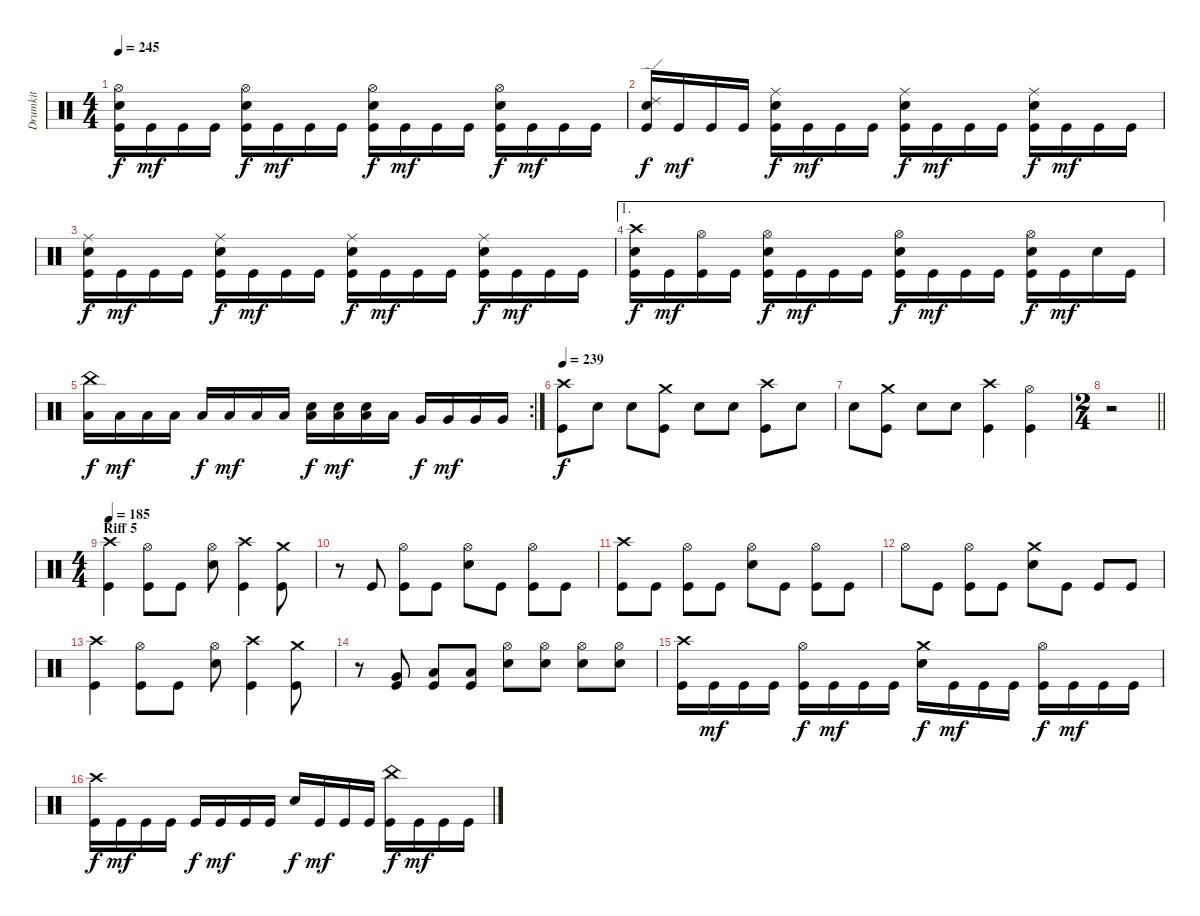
\track ("Drumkit" "Drumkit") {instrument percussion}
\staff {score}
\articulation defaults
\ts (4 4)
\tempo 245
\clef neutral
\ks c
("Kick (hit)" "Snare (hit) 2" "Hi-Hat (open)").16{dy f} "Kick (hit)".16{dy mf} "Kick (hit)".16 "Kick (hit)".16 ("Kick (hit)" "Snare (hit) 2" "Hi-Hat (open)").16{dy f} "Kick (hit)".16{dy mf} "Kick (hit)".16 "Kick (hit)".16 ("Kick (hit)" "Snare (hit) 2" "Hi-Hat (open)").16{dy f} "Kick (hit)".16{dy mf} "Kick (hit)".16 "Kick (hit)".16 ("Kick (hit)" "Snare (hit) 2" "Hi-Hat (open)").16{dy f} "Kick (hit)".16{dy mf} "Kick (hit)".16 "Kick (hit)".16 |
("Kick (hit)" "Snare (hit) 2" "Ride (edge) 2").16{dy f} "Kick (hit)".16{dy mf} "Kick (hit)".16 "Kick (hit)".16 ("Kick (hit)" "Snare (hit) 2" "Ride (middle)").16{dy f} "Kick (hit)".16{dy mf} "Kick (hit)".16 "Kick (hit)".16 ("Kick (hit)" "Snare (hit) 2" "Ride (middle)").16{dy f} "Kick (hit)".16{dy mf} "Kick (hit)".16 "Kick (hit)".16 ("Kick (hit)" "Snare (hit) 2" "Ride (middle)").16{dy f} "Kick (hit)".16{dy mf} "Kick (hit)".16 "Kick (hit)".16 |
("Kick (hit)" "Snare (hit) 2" "Ride (middle)").16{dy f} "Kick (hit)".16{dy mf} "Kick (hit)".16 "Kick (hit)".16 ("Kick (hit)" "Snare (hit) 2" "Ride (middle)").16{dy f} "Kick (hit)".16{dy mf} "Kick (hit)".16 "Kick (hit)".16 ("Kick (hit)" "Snare (hit) 2" "Ride (middle)").16{dy f} "Kick (hit)".16{dy mf} "Kick (hit)".16 "Kick (hit)".16 ("Kick (hit)" "Snare (hit) 2" "Ride (middle)").16{dy f} "Kick (hit)".16{dy mf} "Kick (hit)".16 "Kick (hit)".16 |
\ae 1
("Kick (hit)" "Snare (hit) 2" "Crash high (hit)").16{dy f} "Kick (hit)".16{dy mf} ("Kick (hit)" "Hi-Hat (open)").16 "Kick (hit)".16 ("Kick (hit)" "Snare (hit) 2" "Hi-Hat (open)").16{dy f} "Kick (hit)".16{dy mf} "Kick (hit)".16 "Kick (hit)".16 ("Kick (hit)" "Snare (hit) 2" "Hi-Hat (open)").16{dy f} "Kick (hit)".16{dy mf} "Kick (hit)".16 "Kick (hit)".16 ("Kick (hit)" "Snare (hit) 2" "Hi-Hat (open)").16{dy f} "Kick (hit)".16{dy mf} "Snare (hit) 2".16 "Kick (hit)".16 |
\rc 2
("Low Tom (hit)" "China (hit)").16{dy f} "Low Tom (hit)".16{dy mf} "Low Tom (hit)".16 "Low Tom (hit)".16 "Low Tom (hit)".16{dy f} "Low Tom (hit)".16{dy mf} "Low Tom (hit)".16 "Low Tom (hit)".16 ("Snare (hit) 2" "Low Tom (hit)").16{dy f} ("Snare (hit) 2" "Low Tom (hit)").16{dy mf} ("Snare (hit) 2" "Low Tom (hit)").16 "Low Tom (hit)".16 "Very Low Tom (hit)".16{dy f} "Very Low Tom (hit)".16{dy mf} "Very Low Tom (hit)".16 "Very Low Tom (hit)".16 |
\tempo 239
("Kick (hit)" "Crash high (hit)").8{dy f} "Snare (hit) 2".8 "Snare (hit) 2".8 ("Kick (hit)" "Crash medium (hit)").8 "Snare (hit) 2".8 "Snare (hit) 2".8 ("Kick (hit)" "Crash high (hit)").8 "Snare (hit) 2".8 |
"Snare (hit) 2".8 ("Kick (hit)" "Crash medium (hit)").8 "Snare (hit) 2".8 "Snare (hit) 2".8 ("Kick (hit)" "Crash high (hit)").4 ("Kick (hit)" "Hi-Hat (open)").4 |
\ts (2 4)
\barLineRight lightlight
r.2 |
\ts (4 4)
\section ("" "Riff 5")
\tempo 185
("Kick (hit)" "Crash high (hit)").4 ("Kick (hit)" "Hi-Hat (open)").8 "Kick (hit)".8 ("Snare (hit) 2" "Hi-Hat (open)").8 ("Kick (hit)" "Crash high (hit)").4 ("Kick (hit)" "Crash medium (hit)").8 |
r.8 "Kick (hit)".8 ("Kick (hit)" "Hi-Hat (open)").8 "Kick (hit)".8 ("Snare (hit) 2" "Hi-Hat (open)").8 "Kick (hit)".8 ("Kick (hit)" "Hi-Hat (open)").8 "Kick (hit)".8 |
("Kick (hit)" "Crash high (hit)").8 "Kick (hit)".8 ("Kick (hit)" "Hi-Hat (open)").8 "Kick (hit)".8 ("Snare (hit) 2" "Hi-Hat (open)").8 "Kick (hit)".8 ("Kick (hit)" "Hi-Hat (open)").8 "Kick (hit)".8 |
"Hi-Hat (open)".8 "Kick (hit)".8 ("Kick (hit)" "Hi-Hat (open)").8 "Kick (hit)".8 ("Snare (hit) 2" "Crash medium (hit)").8 "Kick (hit)".8 "Kick (hit)".8 "Kick (hit)".8 |
("Kick (hit)" "Crash high (hit)").4 ("Kick (hit)" "Hi-Hat (open)").8 "Kick (hit)".8 ("Snare (hit) 2" "Hi-Hat (open)").8 ("Kick (hit)" "Crash high (hit)").4 ("Kick (hit)" "Crash medium (hit)").8 |
r.8 ("Kick (hit)" "Very Low Tom (hit)").8 ("Low Floor Tom (hit)" "Kick (hit)").8 ("Low Floor Tom (hit)" "Kick (hit)").8 ("Snare (hit) 2" "Hi-Hat (open)").8 ("Snare (hit) 2" "Hi-Hat (open)").8 ("Snare (hit) 2" "Hi-Hat (open)").8 ("Snare (hit) 2" "Hi-Hat (open)").8 |
("Kick (hit)" "Crash high (hit)").16 "Kick (hit)".16{dy mf} "Kick (hit)".16 "Kick (hit)".16 ("Kick (hit)" "Hi-Hat (open)").16{dy f} "Kick (hit)".16{dy mf} "Kick (hit)".16 "Kick (hit)".16 ("Snare (hit) 2" "Crash medium (hit)").16{dy f} "Kick (hit)".16{dy mf} "Kick (hit)".16 "Kick (hit)".16 ("Kick (hit)" "Hi-Hat (open)").16{dy f} "Kick (hit)".16{dy mf} "Kick (hit)".16 "Kick (hit)".16 |
("Kick (hit)" "Crash high (hit)").16{dy f} "Kick (hit)".16{dy mf} "Kick (hit)".16 "Kick (hit)".16 "Kick (hit)".16{dy f} "Kick (hit)".16{dy mf} "Kick (hit)".16 "Kick (hit)".16 "Snare (hit) 2".16{dy f} "Kick (hit)".16{dy mf} "Kick (hit)".16 "Kick (hit)".16 ("Kick (hit)" "China (hit)").16{dy f} "Kick (hit)".16{dy mf} "Kick (hit)".16 "Kick (hit)".16
